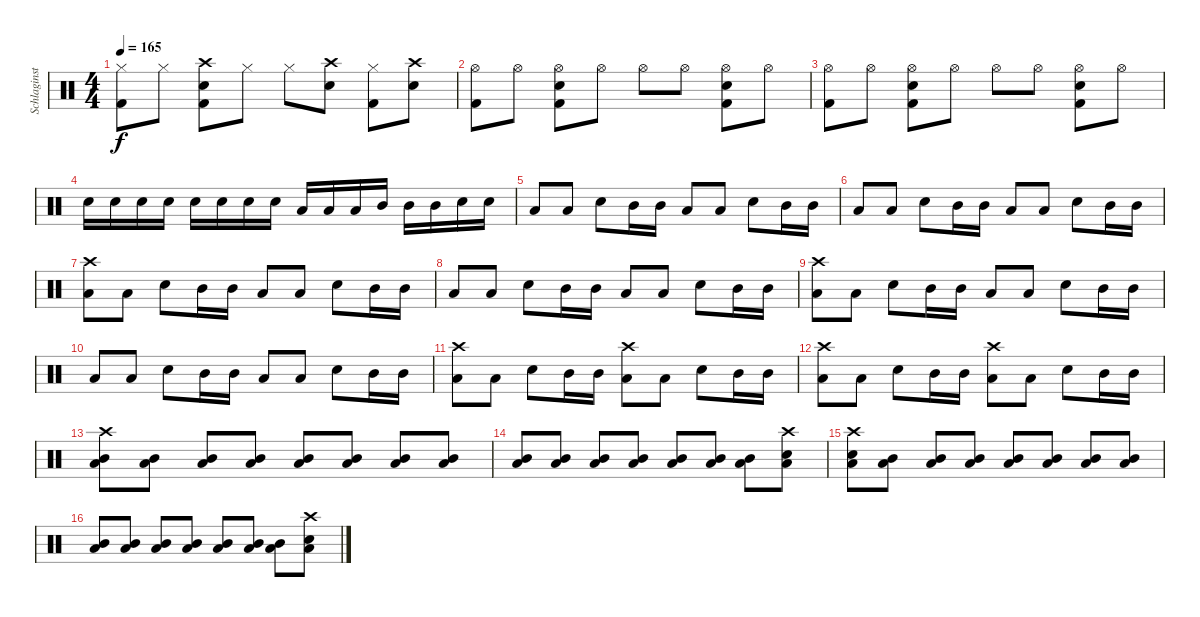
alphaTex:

\track ("Schlaginstrumente - Auswahl" "Schlaginst") {instrument percussion}
\staff {score}
\articulation defaults
\ts (4 4)
\tempo 165
\clef neutral
\ks c
("Kick (hit) 2" "Hi-Hat (closed)").8{dy f} "Hi-Hat (closed)".8 ("Kick (hit) 2" "Snare (hit) 2" "Crash high (hit)").8 "Hi-Hat (closed)".8 "Hi-Hat (closed)".8 ("Snare (hit) 2" "Crash high (hit)").8 ("Kick (hit) 2" "Hi-Hat (closed)").8 ("Snare (hit) 2" "Crash high (hit)").8 |
("Kick (hit) 2" "Hi-Hat (open)").8 "Hi-Hat (open)".8 ("Kick (hit) 2" "Snare (hit) 2" "Hi-Hat (open)").8 "Hi-Hat (open)".8 "Hi-Hat (open)".8 "Hi-Hat (open)".8 ("Kick (hit) 2" "Snare (hit) 2" "Hi-Hat (open)").8 "Hi-Hat (open)".8 |
("Kick (hit) 2" "Hi-Hat (open)").8 "Hi-Hat (open)".8 ("Kick (hit) 2" "Snare (hit) 2" "Hi-Hat (open)").8 "Hi-Hat (open)".8 "Hi-Hat (open)".8 "Hi-Hat (open)".8 ("Kick (hit) 2" "Snare (hit) 2" "Hi-Hat (open)").8 "Hi-Hat (open)".8 |
"Snare (hit) 2".16 "Snare (hit) 2".16 "Snare (hit) 2".16 "Snare (hit) 2".16 "Snare (hit) 2".16 "Snare (hit) 2".16 "Snare (hit) 2".16 "Snare (hit) 2".16 "Low Tom (hit)".16 "Low Tom (hit)".16 "Low Tom (hit)".16 "Mid Tom (hit)".16 "Mid Tom (hit)".16 "Mid Tom (hit)".16 "Snare (hit) 2".16 "Snare (hit) 2".16 |
"Low Tom (hit)".8 "Low Tom (hit)".8 "Snare (hit) 2".8 "Mid Tom (hit)".16 "Mid Tom (hit)".16 "Low Tom (hit)".8 "Low Tom (hit)".8 "Snare (hit) 2".8 "Mid Tom (hit)".16 "Mid Tom (hit)".16 |
"Low Tom (hit)".8 "Low Tom (hit)".8 "Snare (hit) 2".8 "Mid Tom (hit)".16 "Mid Tom (hit)".16 "Low Tom (hit)".8 "Low Tom (hit)".8 "Snare (hit) 2".8 "Mid Tom (hit)".16 "Mid Tom (hit)".16 |
("Low Tom (hit)" "Crash high (hit)").8 "Low Tom (hit)".8 "Snare (hit) 2".8 "Mid Tom (hit)".16 "Mid Tom (hit)".16 "Low Tom (hit)".8 "Low Tom (hit)".8 "Snare (hit) 2".8 "Mid Tom (hit)".16 "Mid Tom (hit)".16 |
"Low Tom (hit)".8 "Low Tom (hit)".8 "Snare (hit) 2".8 "Mid Tom (hit)".16 "Mid Tom (hit)".16 "Low Tom (hit)".8 "Low Tom (hit)".8 "Snare (hit) 2".8 "Mid Tom (hit)".16 "Mid Tom (hit)".16 |
("Low Tom (hit)" "Crash high (hit)").8 "Low Tom (hit)".8 "Snare (hit) 2".8 "Mid Tom (hit)".16 "Mid Tom (hit)".16 "Low Tom (hit)".8 "Low Tom (hit)".8 "Snare (hit) 2".8 "Mid Tom (hit)".16 "Mid Tom (hit)".16 |
"Low Tom (hit)".8 "Low Tom (hit)".8 "Snare (hit) 2".8 "Mid Tom (hit)".16 "Mid Tom (hit)".16 "Low Tom (hit)".8 "Low Tom (hit)".8 "Snare (hit) 2".8 "Mid Tom (hit)".16 "Mid Tom (hit)".16 |
("Low Tom (hit)" "Crash high (hit)").8 "Low Tom (hit)".8 "Snare (hit) 2".8 "Mid Tom (hit)".16 "Mid Tom (hit)".16 ("Low Tom (hit)" "Crash high (hit)").8 "Low Tom (hit)".8 "Snare (hit) 2".8 "Mid Tom (hit)".16 "Mid Tom (hit)".16 |
("Low Tom (hit)" "Crash high (hit)").8 "Low Tom (hit)".8 "Snare (hit) 2".8 "Mid Tom (hit)".16 "Mid Tom (hit)".16 ("Low Tom (hit)" "Crash high (hit)").8 "Low Tom (hit)".8 "Snare (hit) 2".8 "Mid Tom (hit)".16 "Mid Tom (hit)".16 |
("Mid Tom (hit)" "Low Tom (hit)" "Crash high (hit)").8 ("Mid Tom (hit)" "Low Tom (hit)").8 ("Mid Tom (hit)" "Low Tom (hit)").8 ("Mid Tom (hit)" "Low Tom (hit)").8 ("Mid Tom (hit)" "Low Tom (hit)").8 ("Mid Tom (hit)" "Low Tom (hit)").8 ("Mid Tom (hit)" "Low Tom (hit)").8 ("Mid Tom (hit)" "Low Tom (hit)").8 |
("Mid Tom (hit)" "Low Tom (hit)").8 ("Mid Tom (hit)" "Low Tom (hit)").8 ("Mid Tom (hit)" "Low Tom (hit)").8 ("Mid Tom (hit)" "Low Tom (hit)").8 ("Mid Tom (hit)" "Low Tom (hit)").8 ("Mid Tom (hit)" "Low Tom (hit)").8 ("Mid Tom (hit)" "Low Tom (hit)").8 ("Snare (hit) 2" "Low Tom (hit)" "Crash high (hit)").8 |
("Snare (hit) 2" "Low Tom (hit)" "Crash high (hit)").8 ("Mid Tom (hit)" "Low Tom (hit)").8 ("Mid Tom (hit)" "Low Tom (hit)").8 ("Mid Tom (hit)" "Low Tom (hit)").8 ("Mid Tom (hit)" "Low Tom (hit)").8 ("Mid Tom (hit)" "Low Tom (hit)").8 ("Mid Tom (hit)" "Low Tom (hit)").8 ("Mid Tom (hit)" "Low Tom (hit)").8 |
("Mid Tom (hit)" "Low Tom (hit)").8 ("Mid Tom (hit)" "Low Tom (hit)").8 ("Mid Tom (hit)" "Low Tom (hit)").8 ("Mid Tom (hit)" "Low Tom (hit)").8 ("Mid Tom (hit)" "Low Tom (hit)").8 ("Mid Tom (hit)" "Low Tom (hit)").8 ("Mid Tom (hit)" "Low Tom (hit)").8 ("Snare (hit) 2" "Low Tom (hit)" "Crash high (hit)").8
